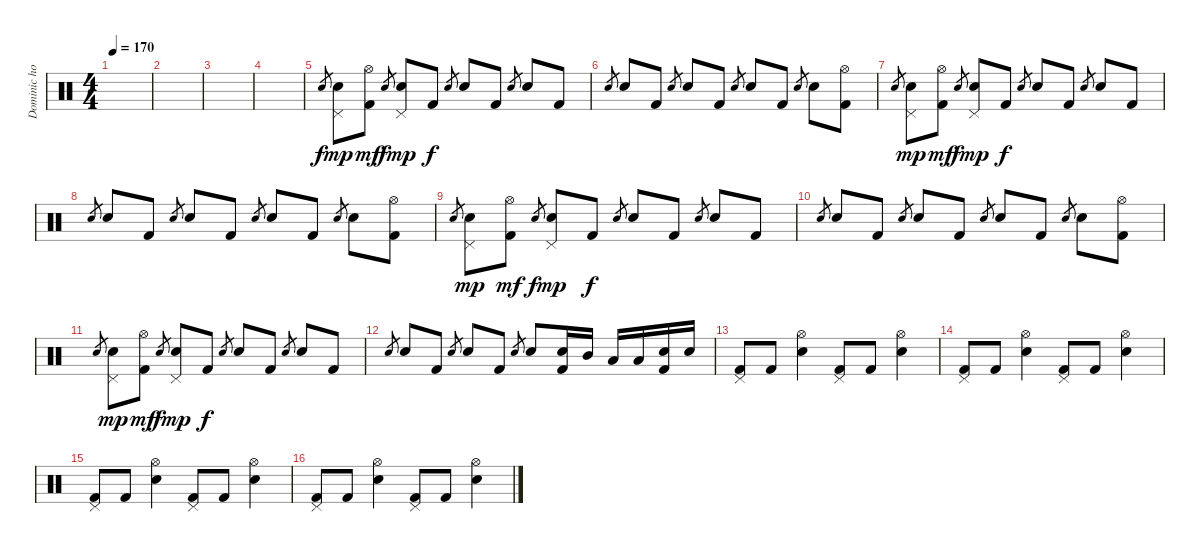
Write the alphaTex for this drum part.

\track ("Dominic howard" "Dominic ho") {instrument percussion}
\staff {score}
\articulation defaults
\ts (4 4)
\tempo 170
\clef neutral
\ks c
|
|
|
|
"Electric Snare (hit)".8{gr} ("Pedal Hi-Hat (hit)" "Electric Snare (hit)").8{dy mp} ("Hi-Hat (open)" "Kick (hit) 2").8{dy mf} "Electric Snare (hit)".8{gr dy f} ("Pedal Hi-Hat (hit)" "Electric Snare (hit)").8{dy mp} "Kick (hit) 2".8{dy f} "Electric Snare (hit)".8{gr} "Electric Snare (hit)".8 "Kick (hit) 2".8 "Electric Snare (hit)".8{gr} "Electric Snare (hit)".8 "Kick (hit) 2".8 |
"Electric Snare (hit)".8{gr} "Electric Snare (hit)".8 "Kick (hit) 2".8 "Electric Snare (hit)".8{gr} "Electric Snare (hit)".8 "Kick (hit) 2".8 "Electric Snare (hit)".8{gr} "Electric Snare (hit)".8 "Kick (hit) 2".8 "Electric Snare (hit)".8{gr} "Electric Snare (hit)".8 ("Hi-Hat (open)" "Kick (hit) 2").8 |
"Electric Snare (hit)".8{gr} ("Pedal Hi-Hat (hit)" "Electric Snare (hit)").8{dy mp} ("Hi-Hat (open)" "Kick (hit) 2").8{dy mf} "Electric Snare (hit)".8{gr dy f} ("Pedal Hi-Hat (hit)" "Electric Snare (hit)").8{dy mp} "Kick (hit) 2".8{dy f} "Electric Snare (hit)".8{gr} "Electric Snare (hit)".8 "Kick (hit) 2".8 "Electric Snare (hit)".8{gr} "Electric Snare (hit)".8 "Kick (hit) 2".8 |
"Electric Snare (hit)".8{gr} "Electric Snare (hit)".8 "Kick (hit) 2".8 "Electric Snare (hit)".8{gr} "Electric Snare (hit)".8 "Kick (hit) 2".8 "Electric Snare (hit)".8{gr} "Electric Snare (hit)".8 "Kick (hit) 2".8 "Electric Snare (hit)".8{gr} "Electric Snare (hit)".8 ("Hi-Hat (open)" "Kick (hit) 2").8 |
"Electric Snare (hit)".8{gr} ("Pedal Hi-Hat (hit)" "Electric Snare (hit)").8{dy mp} ("Hi-Hat (open)" "Kick (hit) 2").8{dy mf} "Electric Snare (hit)".8{gr dy f} ("Pedal Hi-Hat (hit)" "Electric Snare (hit)").8{dy mp} "Kick (hit) 2".8{dy f} "Electric Snare (hit)".8{gr} "Electric Snare (hit)".8 "Kick (hit) 2".8 "Electric Snare (hit)".8{gr} "Electric Snare (hit)".8 "Kick (hit) 2".8 |
"Electric Snare (hit)".8{gr} "Electric Snare (hit)".8 "Kick (hit) 2".8 "Electric Snare (hit)".8{gr} "Electric Snare (hit)".8 "Kick (hit) 2".8 "Electric Snare (hit)".8{gr} "Electric Snare (hit)".8 "Kick (hit) 2".8 "Electric Snare (hit)".8{gr} "Electric Snare (hit)".8 ("Hi-Hat (open)" "Kick (hit) 2").8 |
"Electric Snare (hit)".8{gr} ("Pedal Hi-Hat (hit)" "Electric Snare (hit)").8{dy mp} ("Hi-Hat (open)" "Kick (hit) 2").8{dy mf} "Electric Snare (hit)".8{gr dy f} ("Pedal Hi-Hat (hit)" "Electric Snare (hit)").8{dy mp} "Kick (hit) 2".8{dy f} "Electric Snare (hit)".8{gr} "Electric Snare (hit)".8 "Kick (hit) 2".8 "Electric Snare (hit)".8{gr} "Electric Snare (hit)".8 "Kick (hit) 2".8 |
"Electric Snare (hit)".8{gr} "Electric Snare (hit)".8 "Kick (hit) 2".8 "Electric Snare (hit)".8{gr} "Electric Snare (hit)".8 "Kick (hit) 2".8 "Electric Snare (hit)".8{gr} "Electric Snare (hit)".8 ("Electric Snare (hit)" "Kick (hit) 2").16 "Mid Tom (hit)".16 "Low Tom (hit)".16 "Low Tom (hit)".16 ("Electric Snare (hit)" "Kick (hit) 2").16 "Electric Snare (hit)".16 |
("Pedal Hi-Hat (hit)" "Kick (hit) 2").8 "Kick (hit) 2".8 ("Hi-Hat (open)" "Electric Snare (hit)").4 ("Pedal Hi-Hat (hit)" "Kick (hit) 2").8 "Kick (hit) 2".8 ("Hi-Hat (open)" "Electric Snare (hit)").4 |
("Pedal Hi-Hat (hit)" "Kick (hit) 2").8 "Kick (hit) 2".8 ("Hi-Hat (open)" "Electric Snare (hit)").4 ("Pedal Hi-Hat (hit)" "Kick (hit) 2").8 "Kick (hit) 2".8 ("Hi-Hat (open)" "Electric Snare (hit)").4 |
("Pedal Hi-Hat (hit)" "Kick (hit) 2").8 "Kick (hit) 2".8 ("Hi-Hat (open)" "Electric Snare (hit)").4 ("Pedal Hi-Hat (hit)" "Kick (hit) 2").8 "Kick (hit) 2".8 ("Hi-Hat (open)" "Electric Snare (hit)").4 |
("Pedal Hi-Hat (hit)" "Kick (hit) 2").8 "Kick (hit) 2".8 ("Hi-Hat (open)" "Electric Snare (hit)").4 ("Pedal Hi-Hat (hit)" "Kick (hit) 2").8 "Kick (hit) 2".8 ("Hi-Hat (open)" "Electric Snare (hit)").4
